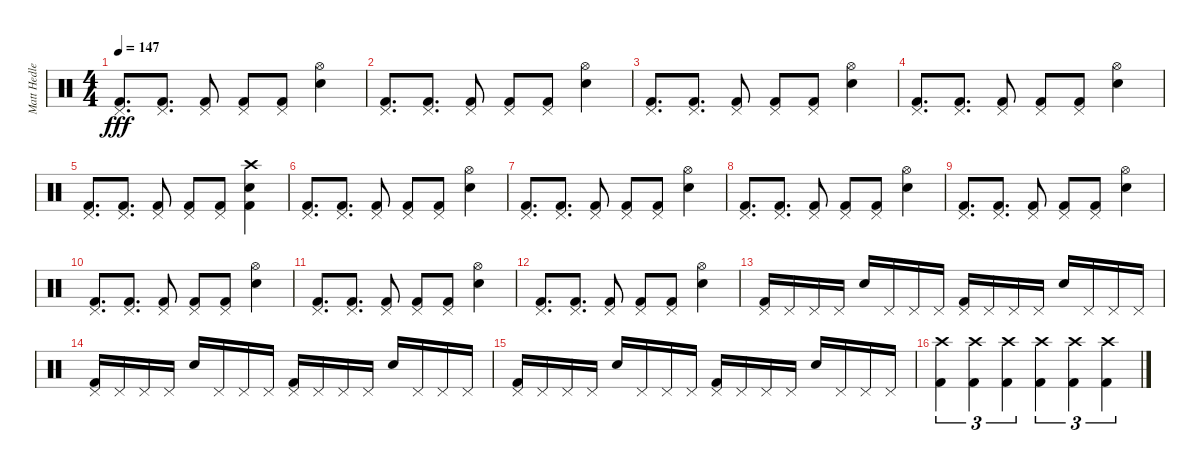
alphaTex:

\track ("Matt Hedlers" "Matt Hedle") {instrument percussion}
\staff {score}
\articulation defaults
\ts (4 4)
\tempo 147
\clef neutral
\ks c
("Pedal Hi-Hat (hit)" "Kick (hit) 2").8{d dy fff} ("Pedal Hi-Hat (hit)" "Kick (hit) 2").8{d} ("Pedal Hi-Hat (hit)" "Kick (hit) 2").8 ("Pedal Hi-Hat (hit)" "Kick (hit) 2").8 ("Pedal Hi-Hat (hit)" "Kick (hit) 2").8 ("Hi-Hat (open)" "Snare (hit) 2").4 |
("Pedal Hi-Hat (hit)" "Kick (hit) 2").8{d} ("Pedal Hi-Hat (hit)" "Kick (hit) 2").8{d} ("Pedal Hi-Hat (hit)" "Kick (hit) 2").8 ("Pedal Hi-Hat (hit)" "Kick (hit) 2").8 ("Pedal Hi-Hat (hit)" "Kick (hit) 2").8 ("Hi-Hat (open)" "Snare (hit) 2").4 |
("Pedal Hi-Hat (hit)" "Kick (hit) 2").8{d} ("Pedal Hi-Hat (hit)" "Kick (hit) 2").8{d} ("Pedal Hi-Hat (hit)" "Kick (hit) 2").8 ("Pedal Hi-Hat (hit)" "Kick (hit) 2").8 ("Pedal Hi-Hat (hit)" "Kick (hit) 2").8 ("Hi-Hat (open)" "Snare (hit) 2").4 |
("Pedal Hi-Hat (hit)" "Kick (hit) 2").8{d} ("Pedal Hi-Hat (hit)" "Kick (hit) 2").8{d} ("Pedal Hi-Hat (hit)" "Kick (hit) 2").8 ("Pedal Hi-Hat (hit)" "Kick (hit) 2").8 ("Pedal Hi-Hat (hit)" "Kick (hit) 2").8 ("Hi-Hat (open)" "Snare (hit) 2").4 |
("Pedal Hi-Hat (hit)" "Kick (hit) 2").8{d} ("Pedal Hi-Hat (hit)" "Kick (hit) 2").8{d} ("Pedal Hi-Hat (hit)" "Kick (hit) 2").8 ("Pedal Hi-Hat (hit)" "Kick (hit) 2").8 ("Pedal Hi-Hat (hit)" "Kick (hit) 2").8 ("Crash high (hit)" "Snare (hit) 2" "Kick (hit) 2").4 |
("Pedal Hi-Hat (hit)" "Kick (hit) 2").8{d} ("Pedal Hi-Hat (hit)" "Kick (hit) 2").8{d} ("Pedal Hi-Hat (hit)" "Kick (hit) 2").8 ("Pedal Hi-Hat (hit)" "Kick (hit) 2").8 ("Pedal Hi-Hat (hit)" "Kick (hit) 2").8 ("Hi-Hat (open)" "Snare (hit) 2").4 |
("Pedal Hi-Hat (hit)" "Kick (hit) 2").8{d} ("Pedal Hi-Hat (hit)" "Kick (hit) 2").8{d} ("Pedal Hi-Hat (hit)" "Kick (hit) 2").8 ("Pedal Hi-Hat (hit)" "Kick (hit) 2").8 ("Pedal Hi-Hat (hit)" "Kick (hit) 2").8 ("Hi-Hat (open)" "Snare (hit) 2").4 |
("Pedal Hi-Hat (hit)" "Kick (hit) 2").8{d} ("Pedal Hi-Hat (hit)" "Kick (hit) 2").8{d} ("Pedal Hi-Hat (hit)" "Kick (hit) 2").8 ("Pedal Hi-Hat (hit)" "Kick (hit) 2").8 ("Pedal Hi-Hat (hit)" "Kick (hit) 2").8 ("Hi-Hat (open)" "Snare (hit) 2").4 |
("Pedal Hi-Hat (hit)" "Kick (hit) 2").8{d} ("Pedal Hi-Hat (hit)" "Kick (hit) 2").8{d} ("Pedal Hi-Hat (hit)" "Kick (hit) 2").8 ("Pedal Hi-Hat (hit)" "Kick (hit) 2").8 ("Pedal Hi-Hat (hit)" "Kick (hit) 2").8 ("Hi-Hat (open)" "Snare (hit) 2").4 |
("Pedal Hi-Hat (hit)" "Kick (hit) 2").8{d} ("Pedal Hi-Hat (hit)" "Kick (hit) 2").8{d} ("Pedal Hi-Hat (hit)" "Kick (hit) 2").8 ("Pedal Hi-Hat (hit)" "Kick (hit) 2").8 ("Pedal Hi-Hat (hit)" "Kick (hit) 2").8 ("Hi-Hat (open)" "Snare (hit) 2").4 |
("Pedal Hi-Hat (hit)" "Kick (hit) 2").8{d} ("Pedal Hi-Hat (hit)" "Kick (hit) 2").8{d} ("Pedal Hi-Hat (hit)" "Kick (hit) 2").8 ("Pedal Hi-Hat (hit)" "Kick (hit) 2").8 ("Pedal Hi-Hat (hit)" "Kick (hit) 2").8 ("Hi-Hat (open)" "Snare (hit) 2").4 |
("Pedal Hi-Hat (hit)" "Kick (hit) 2").8{d} ("Pedal Hi-Hat (hit)" "Kick (hit) 2").8{d} ("Pedal Hi-Hat (hit)" "Kick (hit) 2").8 ("Pedal Hi-Hat (hit)" "Kick (hit) 2").8 ("Pedal Hi-Hat (hit)" "Kick (hit) 2").8 ("Hi-Hat (open)" "Snare (hit) 2").4 |
("Pedal Hi-Hat (hit)" "Kick (hit) 2").16 "Pedal Hi-Hat (hit)".16 "Pedal Hi-Hat (hit)".16 "Pedal Hi-Hat (hit)".16 "Snare (hit) 2".16 "Pedal Hi-Hat (hit)".16 "Pedal Hi-Hat (hit)".16 "Pedal Hi-Hat (hit)".16 ("Pedal Hi-Hat (hit)" "Kick (hit) 2").16 "Pedal Hi-Hat (hit)".16 "Pedal Hi-Hat (hit)".16 "Pedal Hi-Hat (hit)".16 "Snare (hit) 2".16 "Pedal Hi-Hat (hit)".16 "Pedal Hi-Hat (hit)".16 "Pedal Hi-Hat (hit)".16 |
("Pedal Hi-Hat (hit)" "Kick (hit) 2").16 "Pedal Hi-Hat (hit)".16 "Pedal Hi-Hat (hit)".16 "Pedal Hi-Hat (hit)".16 "Snare (hit) 2".16 "Pedal Hi-Hat (hit)".16 "Pedal Hi-Hat (hit)".16 "Pedal Hi-Hat (hit)".16 ("Pedal Hi-Hat (hit)" "Kick (hit) 2").16 "Pedal Hi-Hat (hit)".16 "Pedal Hi-Hat (hit)".16 "Pedal Hi-Hat (hit)".16 "Snare (hit) 2".16 "Pedal Hi-Hat (hit)".16 "Pedal Hi-Hat (hit)".16 "Pedal Hi-Hat (hit)".16 |
("Pedal Hi-Hat (hit)" "Kick (hit) 2").16 "Pedal Hi-Hat (hit)".16 "Pedal Hi-Hat (hit)".16 "Pedal Hi-Hat (hit)".16 "Snare (hit) 2".16 "Pedal Hi-Hat (hit)".16 "Pedal Hi-Hat (hit)".16 "Pedal Hi-Hat (hit)".16 ("Pedal Hi-Hat (hit)" "Kick (hit) 2").16 "Pedal Hi-Hat (hit)".16 "Pedal Hi-Hat (hit)".16 "Pedal Hi-Hat (hit)".16 "Snare (hit) 2".16 "Pedal Hi-Hat (hit)".16 "Pedal Hi-Hat (hit)".16 "Pedal Hi-Hat (hit)".16 |
("Crash high (hit)" "Kick (hit) 2").4{tu (3 2)} ("Crash high (hit)" "Kick (hit) 2").4{tu (3 2)} ("Crash high (hit)" "Kick (hit) 2").4{tu (3 2)} ("Crash high (hit)" "Kick (hit) 2").4{tu (3 2)} ("Crash high (hit)" "Kick (hit) 2").4{tu (3 2)} ("Crash high (hit)" "Kick (hit) 2").4{tu (3 2)}
